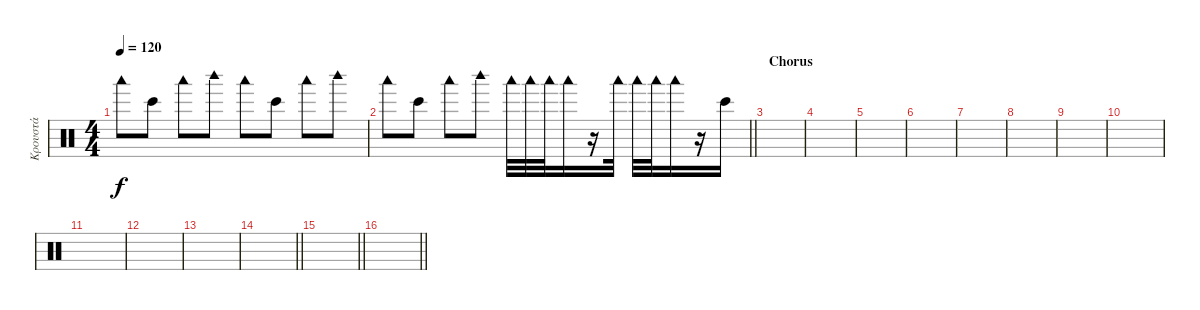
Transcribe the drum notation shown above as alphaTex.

\track ("Κρουστά" "Κρουστά") {instrument percussion}
\staff {score}
\articulation defaults
\ts (4 4)
\tempo 120
\clef neutral
\ks c "Woodblock low (hit)".8{dy f} "Bongo High (hit)".8 "Woodblock low (hit)".8 "Woodblock high (hit)".8 "Woodblock low (hit)".8 "Bongo High (hit)".8 "Woodblock low (hit)".8 "Woodblock high (hit)".8
|
\barLineRight lightlight "Woodblock low (hit)".8 "Bongo High (hit)".8 "Woodblock low (hit)".8 "Woodblock high (hit)".8 "Woodblock low (hit)".32 "Woodblock low (hit)".32 "Woodblock low (hit)".32 "Woodblock low (hit)".16
r.16 "Woodblock low (hit)".32 "Woodblock low (hit)".32 "Woodblock low (hit)".32 "Woodblock low (hit)".16 r.16 "Bongo High (hit)".16 |
\section ("" "Chorus")
|
|
|
|
|
|
|
|
|
|
|
\barLineRight lightlight
|
\barLineRight lightlight
|
\barLineRight lightlight
